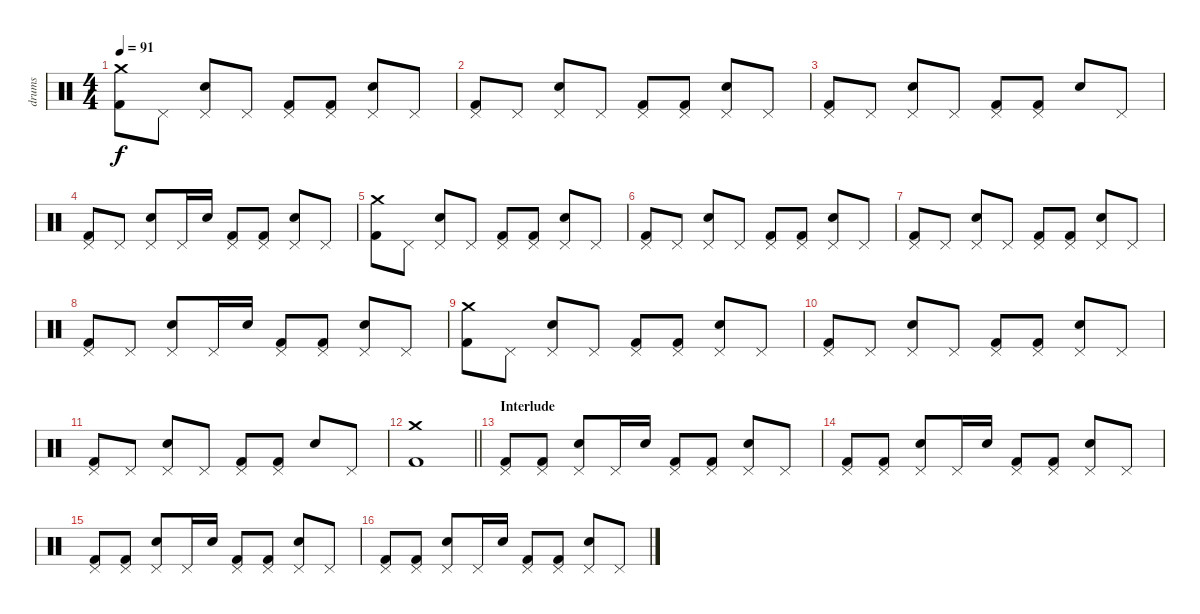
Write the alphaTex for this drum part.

\track ("drums" "drums") {instrument percussion}
\staff {score}
\articulation defaults
\ts (4 4)
\tempo 91
\clef neutral
\ks c
("Crash medium (hit)" "Kick (hit) 2").8{dy f} "Pedal Hi-Hat (hit)".8 ("Pedal Hi-Hat (hit)" "Electric Snare (hit)").8 "Pedal Hi-Hat (hit)".8 ("Pedal Hi-Hat (hit)" "Kick (hit) 2").8 ("Pedal Hi-Hat (hit)" "Kick (hit) 2").8 ("Pedal Hi-Hat (hit)" "Electric Snare (hit)").8 "Pedal Hi-Hat (hit)".8 |
("Pedal Hi-Hat (hit)" "Kick (hit) 2").8 "Pedal Hi-Hat (hit)".8 ("Pedal Hi-Hat (hit)" "Electric Snare (hit)").8 "Pedal Hi-Hat (hit)".8 ("Pedal Hi-Hat (hit)" "Kick (hit) 2").8 ("Pedal Hi-Hat (hit)" "Kick (hit) 2").8 ("Pedal Hi-Hat (hit)" "Electric Snare (hit)").8 "Pedal Hi-Hat (hit)".8 |
("Pedal Hi-Hat (hit)" "Kick (hit) 2").8 "Pedal Hi-Hat (hit)".8 ("Pedal Hi-Hat (hit)" "Electric Snare (hit)").8 "Pedal Hi-Hat (hit)".8 ("Pedal Hi-Hat (hit)" "Kick (hit) 2").8 ("Pedal Hi-Hat (hit)" "Kick (hit) 2").8 "Electric Snare (hit)".8 "Pedal Hi-Hat (hit)".8 |
("Pedal Hi-Hat (hit)" "Kick (hit) 2").8 "Pedal Hi-Hat (hit)".8 ("Pedal Hi-Hat (hit)" "Electric Snare (hit)").8 "Pedal Hi-Hat (hit)".16 "Electric Snare (hit)".16 ("Pedal Hi-Hat (hit)" "Kick (hit) 2").8 ("Pedal Hi-Hat (hit)" "Kick (hit) 2").8 ("Pedal Hi-Hat (hit)" "Electric Snare (hit)").8 "Pedal Hi-Hat (hit)".8 |
("Crash medium (hit)" "Kick (hit) 2").8 "Pedal Hi-Hat (hit)".8 ("Pedal Hi-Hat (hit)" "Electric Snare (hit)").8 "Pedal Hi-Hat (hit)".8 ("Pedal Hi-Hat (hit)" "Kick (hit) 2").8 ("Pedal Hi-Hat (hit)" "Kick (hit) 2").8 ("Pedal Hi-Hat (hit)" "Electric Snare (hit)").8 "Pedal Hi-Hat (hit)".8 |
("Pedal Hi-Hat (hit)" "Kick (hit) 2").8 "Pedal Hi-Hat (hit)".8 ("Pedal Hi-Hat (hit)" "Electric Snare (hit)").8 "Pedal Hi-Hat (hit)".8 ("Pedal Hi-Hat (hit)" "Kick (hit) 2").8 ("Pedal Hi-Hat (hit)" "Kick (hit) 2").8 ("Pedal Hi-Hat (hit)" "Electric Snare (hit)").8 "Pedal Hi-Hat (hit)".8 |
("Pedal Hi-Hat (hit)" "Kick (hit) 2").8 "Pedal Hi-Hat (hit)".8 ("Pedal Hi-Hat (hit)" "Electric Snare (hit)").8 "Pedal Hi-Hat (hit)".8 ("Pedal Hi-Hat (hit)" "Kick (hit) 2").8 ("Pedal Hi-Hat (hit)" "Kick (hit) 2").8 ("Pedal Hi-Hat (hit)" "Electric Snare (hit)").8 "Pedal Hi-Hat (hit)".8 |
("Pedal Hi-Hat (hit)" "Kick (hit) 2").8 "Pedal Hi-Hat (hit)".8 ("Pedal Hi-Hat (hit)" "Electric Snare (hit)").8 "Pedal Hi-Hat (hit)".16 "Electric Snare (hit)".16 ("Pedal Hi-Hat (hit)" "Kick (hit) 2").8 ("Pedal Hi-Hat (hit)" "Kick (hit) 2").8 ("Pedal Hi-Hat (hit)" "Electric Snare (hit)").8 "Pedal Hi-Hat (hit)".8 |
("Crash medium (hit)" "Kick (hit) 2").8 "Pedal Hi-Hat (hit)".8 ("Pedal Hi-Hat (hit)" "Electric Snare (hit)").8 "Pedal Hi-Hat (hit)".8 ("Pedal Hi-Hat (hit)" "Kick (hit) 2").8 ("Pedal Hi-Hat (hit)" "Kick (hit) 2").8 ("Pedal Hi-Hat (hit)" "Electric Snare (hit)").8 "Pedal Hi-Hat (hit)".8 |
("Pedal Hi-Hat (hit)" "Kick (hit) 2").8 "Pedal Hi-Hat (hit)".8 ("Pedal Hi-Hat (hit)" "Electric Snare (hit)").8 "Pedal Hi-Hat (hit)".8 ("Pedal Hi-Hat (hit)" "Kick (hit) 2").8 ("Pedal Hi-Hat (hit)" "Kick (hit) 2").8 ("Pedal Hi-Hat (hit)" "Electric Snare (hit)").8 "Pedal Hi-Hat (hit)".8 |
("Pedal Hi-Hat (hit)" "Kick (hit) 2").8 "Pedal Hi-Hat (hit)".8 ("Pedal Hi-Hat (hit)" "Electric Snare (hit)").8 "Pedal Hi-Hat (hit)".8 ("Pedal Hi-Hat (hit)" "Kick (hit) 2").8 ("Pedal Hi-Hat (hit)" "Kick (hit) 2").8 "Electric Snare (hit)".8 "Pedal Hi-Hat (hit)".8 |
\barLineRight lightlight
("Crash medium (hit)" "Kick (hit) 2").1 |
\section ("" "Interlude")
("Pedal Hi-Hat (hit)" "Kick (hit) 2").8 ("Pedal Hi-Hat (hit)" "Kick (hit) 2").8 ("Pedal Hi-Hat (hit)" "Electric Snare (hit)").8 "Pedal Hi-Hat (hit)".16 "Electric Snare (hit)".16 ("Pedal Hi-Hat (hit)" "Kick (hit) 2").8 ("Pedal Hi-Hat (hit)" "Kick (hit) 2").8 ("Pedal Hi-Hat (hit)" "Electric Snare (hit)").8 "Pedal Hi-Hat (hit)".8 |
("Pedal Hi-Hat (hit)" "Kick (hit) 2").8 ("Pedal Hi-Hat (hit)" "Kick (hit) 2").8 ("Pedal Hi-Hat (hit)" "Electric Snare (hit)").8 "Pedal Hi-Hat (hit)".16 "Electric Snare (hit)".16 ("Pedal Hi-Hat (hit)" "Kick (hit) 2").8 ("Pedal Hi-Hat (hit)" "Kick (hit) 2").8 ("Pedal Hi-Hat (hit)" "Electric Snare (hit)").8 "Pedal Hi-Hat (hit)".8 |
("Pedal Hi-Hat (hit)" "Kick (hit) 2").8 ("Pedal Hi-Hat (hit)" "Kick (hit) 2").8 ("Pedal Hi-Hat (hit)" "Electric Snare (hit)").8 "Pedal Hi-Hat (hit)".16 "Electric Snare (hit)".16 ("Pedal Hi-Hat (hit)" "Kick (hit) 2").8 ("Pedal Hi-Hat (hit)" "Kick (hit) 2").8 ("Pedal Hi-Hat (hit)" "Electric Snare (hit)").8 "Pedal Hi-Hat (hit)".8 |
("Pedal Hi-Hat (hit)" "Kick (hit) 2").8 ("Pedal Hi-Hat (hit)" "Kick (hit) 2").8 ("Pedal Hi-Hat (hit)" "Electric Snare (hit)").8 "Pedal Hi-Hat (hit)".16 "Electric Snare (hit)".16 ("Pedal Hi-Hat (hit)" "Kick (hit) 2").8 ("Pedal Hi-Hat (hit)" "Kick (hit) 2").8 ("Pedal Hi-Hat (hit)" "Electric Snare (hit)").8 "Pedal Hi-Hat (hit)".8
